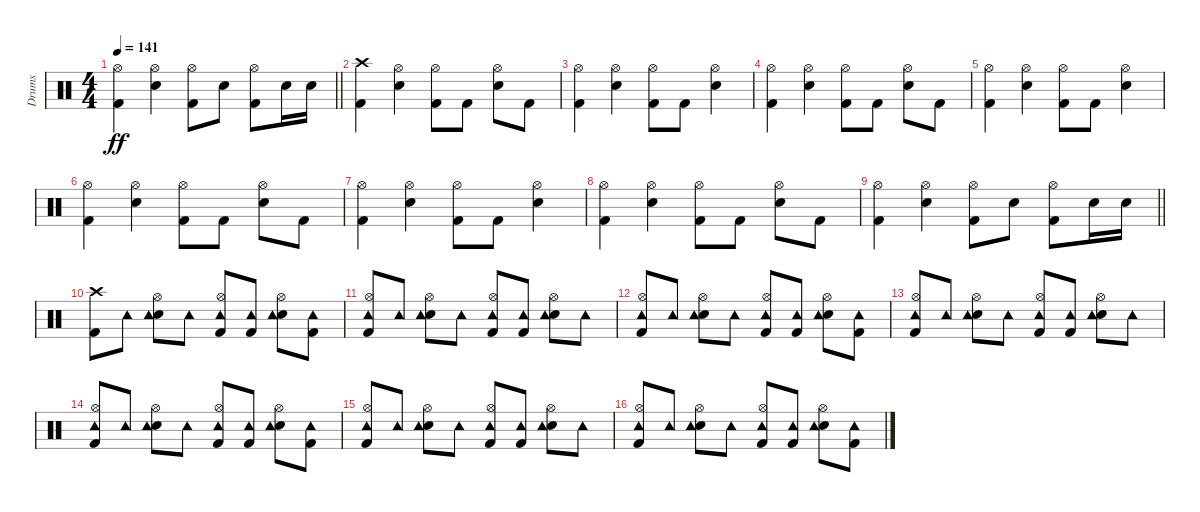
\track ("Drums" "Drums") {instrument percussion}
\staff {score}
\articulation defaults
\ts (4 4)
\tempo 141
\clef neutral
\barLineRight lightlight
\ks c
("Kick (hit) 2" "Hi-Hat (open)").4{dy ff} ("Snare (hit) 2" "Hi-Hat (open)").4 ("Kick (hit) 2" "Hi-Hat (open)").8 "Snare (hit) 2".8 ("Kick (hit) 2" "Hi-Hat (open)").8 "Snare (hit) 2".16 "Snare (hit) 2".16 |
("Kick (hit) 2" "Crash high (hit)").4 ("Snare (hit) 2" "Hi-Hat (open)").4 ("Kick (hit) 2" "Hi-Hat (open)").8 "Kick (hit) 2".8 ("Snare (hit) 2" "Hi-Hat (open)").8 "Kick (hit) 2".8 |
("Kick (hit) 2" "Hi-Hat (open)").4 ("Snare (hit) 2" "Hi-Hat (open)").4 ("Kick (hit) 2" "Hi-Hat (open)").8 "Kick (hit) 2".8 ("Snare (hit) 2" "Hi-Hat (open)").4 |
("Kick (hit) 2" "Hi-Hat (open)").4 ("Snare (hit) 2" "Hi-Hat (open)").4 ("Kick (hit) 2" "Hi-Hat (open)").8 "Kick (hit) 2".8 ("Snare (hit) 2" "Hi-Hat (open)").8 "Kick (hit) 2".8 |
("Kick (hit) 2" "Hi-Hat (open)").4 ("Snare (hit) 2" "Hi-Hat (open)").4 ("Kick (hit) 2" "Hi-Hat (open)").8 "Kick (hit) 2".8 ("Snare (hit) 2" "Hi-Hat (open)").4 |
("Kick (hit) 2" "Hi-Hat (open)").4 ("Snare (hit) 2" "Hi-Hat (open)").4 ("Kick (hit) 2" "Hi-Hat (open)").8 "Kick (hit) 2".8 ("Snare (hit) 2" "Hi-Hat (open)").8 "Kick (hit) 2".8 |
("Kick (hit) 2" "Hi-Hat (open)").4 ("Snare (hit) 2" "Hi-Hat (open)").4 ("Kick (hit) 2" "Hi-Hat (open)").8 "Kick (hit) 2".8 ("Snare (hit) 2" "Hi-Hat (open)").4 |
("Kick (hit) 2" "Hi-Hat (open)").4 ("Snare (hit) 2" "Hi-Hat (open)").4 ("Kick (hit) 2" "Hi-Hat (open)").8 "Kick (hit) 2".8 ("Snare (hit) 2" "Hi-Hat (open)").8 "Kick (hit) 2".8 |
\barLineRight lightlight
("Kick (hit) 2" "Hi-Hat (open)").4 ("Snare (hit) 2" "Hi-Hat (open)").4 ("Kick (hit) 2" "Hi-Hat (open)").8 "Snare (hit) 2".8 ("Kick (hit) 2" "Hi-Hat (open)").8 "Snare (hit) 2".16 "Snare (hit) 2".16 |
("Kick (hit) 2" "Crash high (hit)").8 "Tambourine (hit)".8 ("Snare (hit) 2" "Hi-Hat (open)" "Tambourine (hit)").8 "Tambourine (hit)".8 ("Kick (hit) 2" "Hi-Hat (open)" "Tambourine (hit)").8 ("Kick (hit) 2" "Tambourine (hit)").8 ("Snare (hit) 2" "Hi-Hat (open)" "Tambourine (hit)").8 ("Kick (hit) 2" "Tambourine (hit)").8 |
("Kick (hit) 2" "Hi-Hat (open)" "Tambourine (hit)").8 "Tambourine (hit)".8 ("Snare (hit) 2" "Hi-Hat (open)" "Tambourine (hit)").8 "Tambourine (hit)".8 ("Kick (hit) 2" "Hi-Hat (open)" "Tambourine (hit)").8 ("Kick (hit) 2" "Tambourine (hit)").8 ("Snare (hit) 2" "Hi-Hat (open)" "Tambourine (hit)").8 "Tambourine (hit)".8 |
("Kick (hit) 2" "Hi-Hat (open)" "Tambourine (hit)").8 "Tambourine (hit)".8 ("Snare (hit) 2" "Hi-Hat (open)" "Tambourine (hit)").8 "Tambourine (hit)".8 ("Kick (hit) 2" "Hi-Hat (open)" "Tambourine (hit)").8 ("Kick (hit) 2" "Tambourine (hit)").8 ("Snare (hit) 2" "Hi-Hat (open)" "Tambourine (hit)").8 ("Kick (hit) 2" "Tambourine (hit)").8 |
("Kick (hit) 2" "Hi-Hat (open)" "Tambourine (hit)").8 "Tambourine (hit)".8 ("Snare (hit) 2" "Hi-Hat (open)" "Tambourine (hit)").8 "Tambourine (hit)".8 ("Kick (hit) 2" "Hi-Hat (open)" "Tambourine (hit)").8 ("Kick (hit) 2" "Tambourine (hit)").8 ("Snare (hit) 2" "Hi-Hat (open)" "Tambourine (hit)").8 "Tambourine (hit)".8 |
("Kick (hit) 2" "Hi-Hat (open)" "Tambourine (hit)").8 "Tambourine (hit)".8 ("Snare (hit) 2" "Hi-Hat (open)" "Tambourine (hit)").8 "Tambourine (hit)".8 ("Kick (hit) 2" "Hi-Hat (open)" "Tambourine (hit)").8 ("Kick (hit) 2" "Tambourine (hit)").8 ("Snare (hit) 2" "Hi-Hat (open)" "Tambourine (hit)").8 ("Kick (hit) 2" "Tambourine (hit)").8 |
("Kick (hit) 2" "Hi-Hat (open)" "Tambourine (hit)").8 "Tambourine (hit)".8 ("Snare (hit) 2" "Hi-Hat (open)" "Tambourine (hit)").8 "Tambourine (hit)".8 ("Kick (hit) 2" "Hi-Hat (open)" "Tambourine (hit)").8 ("Kick (hit) 2" "Tambourine (hit)").8 ("Snare (hit) 2" "Hi-Hat (open)" "Tambourine (hit)").8 "Tambourine (hit)".8 |
("Kick (hit) 2" "Hi-Hat (open)" "Tambourine (hit)").8 "Tambourine (hit)".8 ("Snare (hit) 2" "Hi-Hat (open)" "Tambourine (hit)").8 "Tambourine (hit)".8 ("Kick (hit) 2" "Hi-Hat (open)" "Tambourine (hit)").8 ("Kick (hit) 2" "Tambourine (hit)").8 ("Snare (hit) 2" "Hi-Hat (open)" "Tambourine (hit)").8 ("Kick (hit) 2" "Tambourine (hit)").8
